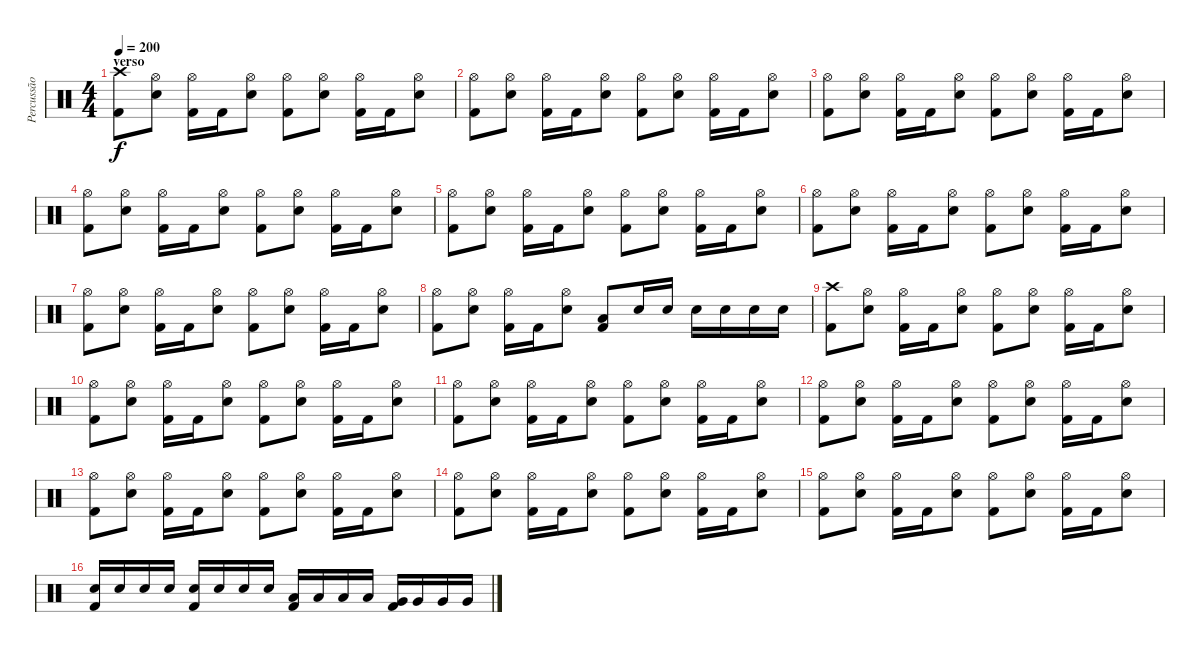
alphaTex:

\track ("Percussão" "Percussão") {instrument percussion}
\staff {score}
\articulation defaults
\ts (4 4)
\section ("" "verso")
\tempo 200
\clef neutral
\ks c
("Crash high (hit)" "Kick (hit) 2").8{dy f} ("Hi-Hat (open)" "Snare (hit) 2").8 ("Hi-Hat (open)" "Kick (hit) 2").16 "Kick (hit) 2".16 ("Hi-Hat (open)" "Snare (hit) 2").8 ("Hi-Hat (open)" "Kick (hit) 2").8 ("Hi-Hat (open)" "Snare (hit) 2").8 ("Hi-Hat (open)" "Kick (hit) 2").16 "Kick (hit) 2".16 ("Hi-Hat (open)" "Snare (hit) 2").8 |
("Hi-Hat (open)" "Kick (hit) 2").8 ("Hi-Hat (open)" "Snare (hit) 2").8 ("Hi-Hat (open)" "Kick (hit) 2").16 "Kick (hit) 2".16 ("Hi-Hat (open)" "Snare (hit) 2").8 ("Hi-Hat (open)" "Kick (hit) 2").8 ("Hi-Hat (open)" "Snare (hit) 2").8 ("Hi-Hat (open)" "Kick (hit) 2").16 "Kick (hit) 2".16 ("Hi-Hat (open)" "Snare (hit) 2").8 |
("Hi-Hat (open)" "Kick (hit) 2").8 ("Hi-Hat (open)" "Snare (hit) 2").8 ("Hi-Hat (open)" "Kick (hit) 2").16 "Kick (hit) 2".16 ("Hi-Hat (open)" "Snare (hit) 2").8 ("Hi-Hat (open)" "Kick (hit) 2").8 ("Hi-Hat (open)" "Snare (hit) 2").8 ("Hi-Hat (open)" "Kick (hit) 2").16 "Kick (hit) 2".16 ("Hi-Hat (open)" "Snare (hit) 2").8 |
("Hi-Hat (open)" "Kick (hit) 2").8 ("Hi-Hat (open)" "Snare (hit) 2").8 ("Hi-Hat (open)" "Kick (hit) 2").16 "Kick (hit) 2".16 ("Hi-Hat (open)" "Snare (hit) 2").8 ("Hi-Hat (open)" "Kick (hit) 2").8 ("Hi-Hat (open)" "Snare (hit) 2").8 ("Hi-Hat (open)" "Kick (hit) 2").16 "Kick (hit) 2".16 ("Hi-Hat (open)" "Snare (hit) 2").8 |
("Hi-Hat (open)" "Kick (hit) 2").8 ("Hi-Hat (open)" "Snare (hit) 2").8 ("Hi-Hat (open)" "Kick (hit) 2").16 "Kick (hit) 2".16 ("Hi-Hat (open)" "Snare (hit) 2").8 ("Hi-Hat (open)" "Kick (hit) 2").8 ("Hi-Hat (open)" "Snare (hit) 2").8 ("Hi-Hat (open)" "Kick (hit) 2").16 "Kick (hit) 2".16 ("Hi-Hat (open)" "Snare (hit) 2").8 |
("Hi-Hat (open)" "Kick (hit) 2").8 ("Hi-Hat (open)" "Snare (hit) 2").8 ("Hi-Hat (open)" "Kick (hit) 2").16 "Kick (hit) 2".16 ("Hi-Hat (open)" "Snare (hit) 2").8 ("Hi-Hat (open)" "Kick (hit) 2").8 ("Hi-Hat (open)" "Snare (hit) 2").8 ("Hi-Hat (open)" "Kick (hit) 2").16 "Kick (hit) 2".16 ("Hi-Hat (open)" "Snare (hit) 2").8 |
("Hi-Hat (open)" "Kick (hit) 2").8 ("Hi-Hat (open)" "Snare (hit) 2").8 ("Hi-Hat (open)" "Kick (hit) 2").16 "Kick (hit) 2".16 ("Hi-Hat (open)" "Snare (hit) 2").8 ("Hi-Hat (open)" "Kick (hit) 2").8 ("Hi-Hat (open)" "Snare (hit) 2").8 ("Hi-Hat (open)" "Kick (hit) 2").16 "Kick (hit) 2".16 ("Hi-Hat (open)" "Snare (hit) 2").8 |
("Hi-Hat (open)" "Kick (hit) 2").8 ("Hi-Hat (open)" "Snare (hit) 2").8 ("Hi-Hat (open)" "Kick (hit) 2").16 "Kick (hit) 2".16 ("Hi-Hat (open)" "Snare (hit) 2").8 ("Low Tom (hit)" "Kick (hit) 2").8 "Snare (hit) 2".16 "Snare (hit) 2".16 "Snare (hit) 2".16 "Snare (hit) 2".16 "Snare (hit) 2".16 "Snare (hit) 2".16 |
("Crash high (hit)" "Kick (hit) 2").8 ("Hi-Hat (open)" "Snare (hit) 2").8 ("Hi-Hat (open)" "Kick (hit) 2").16 "Kick (hit) 2".16 ("Hi-Hat (open)" "Snare (hit) 2").8 ("Hi-Hat (open)" "Kick (hit) 2").8 ("Hi-Hat (open)" "Snare (hit) 2").8 ("Hi-Hat (open)" "Kick (hit) 2").16 "Kick (hit) 2".16 ("Hi-Hat (open)" "Snare (hit) 2").8 |
("Hi-Hat (open)" "Kick (hit) 2").8 ("Hi-Hat (open)" "Snare (hit) 2").8 ("Hi-Hat (open)" "Kick (hit) 2").16 "Kick (hit) 2".16 ("Hi-Hat (open)" "Snare (hit) 2").8 ("Hi-Hat (open)" "Kick (hit) 2").8 ("Hi-Hat (open)" "Snare (hit) 2").8 ("Hi-Hat (open)" "Kick (hit) 2").16 "Kick (hit) 2".16 ("Hi-Hat (open)" "Snare (hit) 2").8 |
("Hi-Hat (open)" "Kick (hit) 2").8 ("Hi-Hat (open)" "Snare (hit) 2").8 ("Hi-Hat (open)" "Kick (hit) 2").16 "Kick (hit) 2".16 ("Hi-Hat (open)" "Snare (hit) 2").8 ("Hi-Hat (open)" "Kick (hit) 2").8 ("Hi-Hat (open)" "Snare (hit) 2").8 ("Hi-Hat (open)" "Kick (hit) 2").16 "Kick (hit) 2".16 ("Hi-Hat (open)" "Snare (hit) 2").8 |
("Hi-Hat (open)" "Kick (hit) 2").8 ("Hi-Hat (open)" "Snare (hit) 2").8 ("Hi-Hat (open)" "Kick (hit) 2").16 "Kick (hit) 2".16 ("Hi-Hat (open)" "Snare (hit) 2").8 ("Hi-Hat (open)" "Kick (hit) 2").8 ("Hi-Hat (open)" "Snare (hit) 2").8 ("Hi-Hat (open)" "Kick (hit) 2").16 "Kick (hit) 2".16 ("Hi-Hat (open)" "Snare (hit) 2").8 |
("Hi-Hat (open)" "Kick (hit) 2").8 ("Hi-Hat (open)" "Snare (hit) 2").8 ("Hi-Hat (open)" "Kick (hit) 2").16 "Kick (hit) 2".16 ("Hi-Hat (open)" "Snare (hit) 2").8 ("Hi-Hat (open)" "Kick (hit) 2").8 ("Hi-Hat (open)" "Snare (hit) 2").8 ("Hi-Hat (open)" "Kick (hit) 2").16 "Kick (hit) 2".16 ("Hi-Hat (open)" "Snare (hit) 2").8 |
("Hi-Hat (open)" "Kick (hit) 2").8 ("Hi-Hat (open)" "Snare (hit) 2").8 ("Hi-Hat (open)" "Kick (hit) 2").16 "Kick (hit) 2".16 ("Hi-Hat (open)" "Snare (hit) 2").8 ("Hi-Hat (open)" "Kick (hit) 2").8 ("Hi-Hat (open)" "Snare (hit) 2").8 ("Hi-Hat (open)" "Kick (hit) 2").16 "Kick (hit) 2".16 ("Hi-Hat (open)" "Snare (hit) 2").8 |
("Hi-Hat (open)" "Kick (hit) 2").8 ("Hi-Hat (open)" "Snare (hit) 2").8 ("Hi-Hat (open)" "Kick (hit) 2").16 "Kick (hit) 2".16 ("Hi-Hat (open)" "Snare (hit) 2").8 ("Hi-Hat (open)" "Kick (hit) 2").8 ("Hi-Hat (open)" "Snare (hit) 2").8 ("Hi-Hat (open)" "Kick (hit) 2").16 "Kick (hit) 2".16 ("Hi-Hat (open)" "Snare (hit) 2").8 |
("Snare (hit) 2" "Kick (hit) 2").16 "Snare (hit) 2".16 "Snare (hit) 2".16 "Snare (hit) 2".16 ("Snare (hit) 2" "Kick (hit) 2").16 "Snare (hit) 2".16 "Snare (hit) 2".16 "Snare (hit) 2".16 ("Low Tom (hit)" "Kick (hit) 2").16 "Low Tom (hit)".16 "Low Tom (hit)".16 "Low Tom (hit)".16 ("Very Low Tom (hit)" "Kick (hit) 2").16 "Very Low Tom (hit)".16 "Very Low Tom (hit)".16 "Very Low Tom (hit)".16
